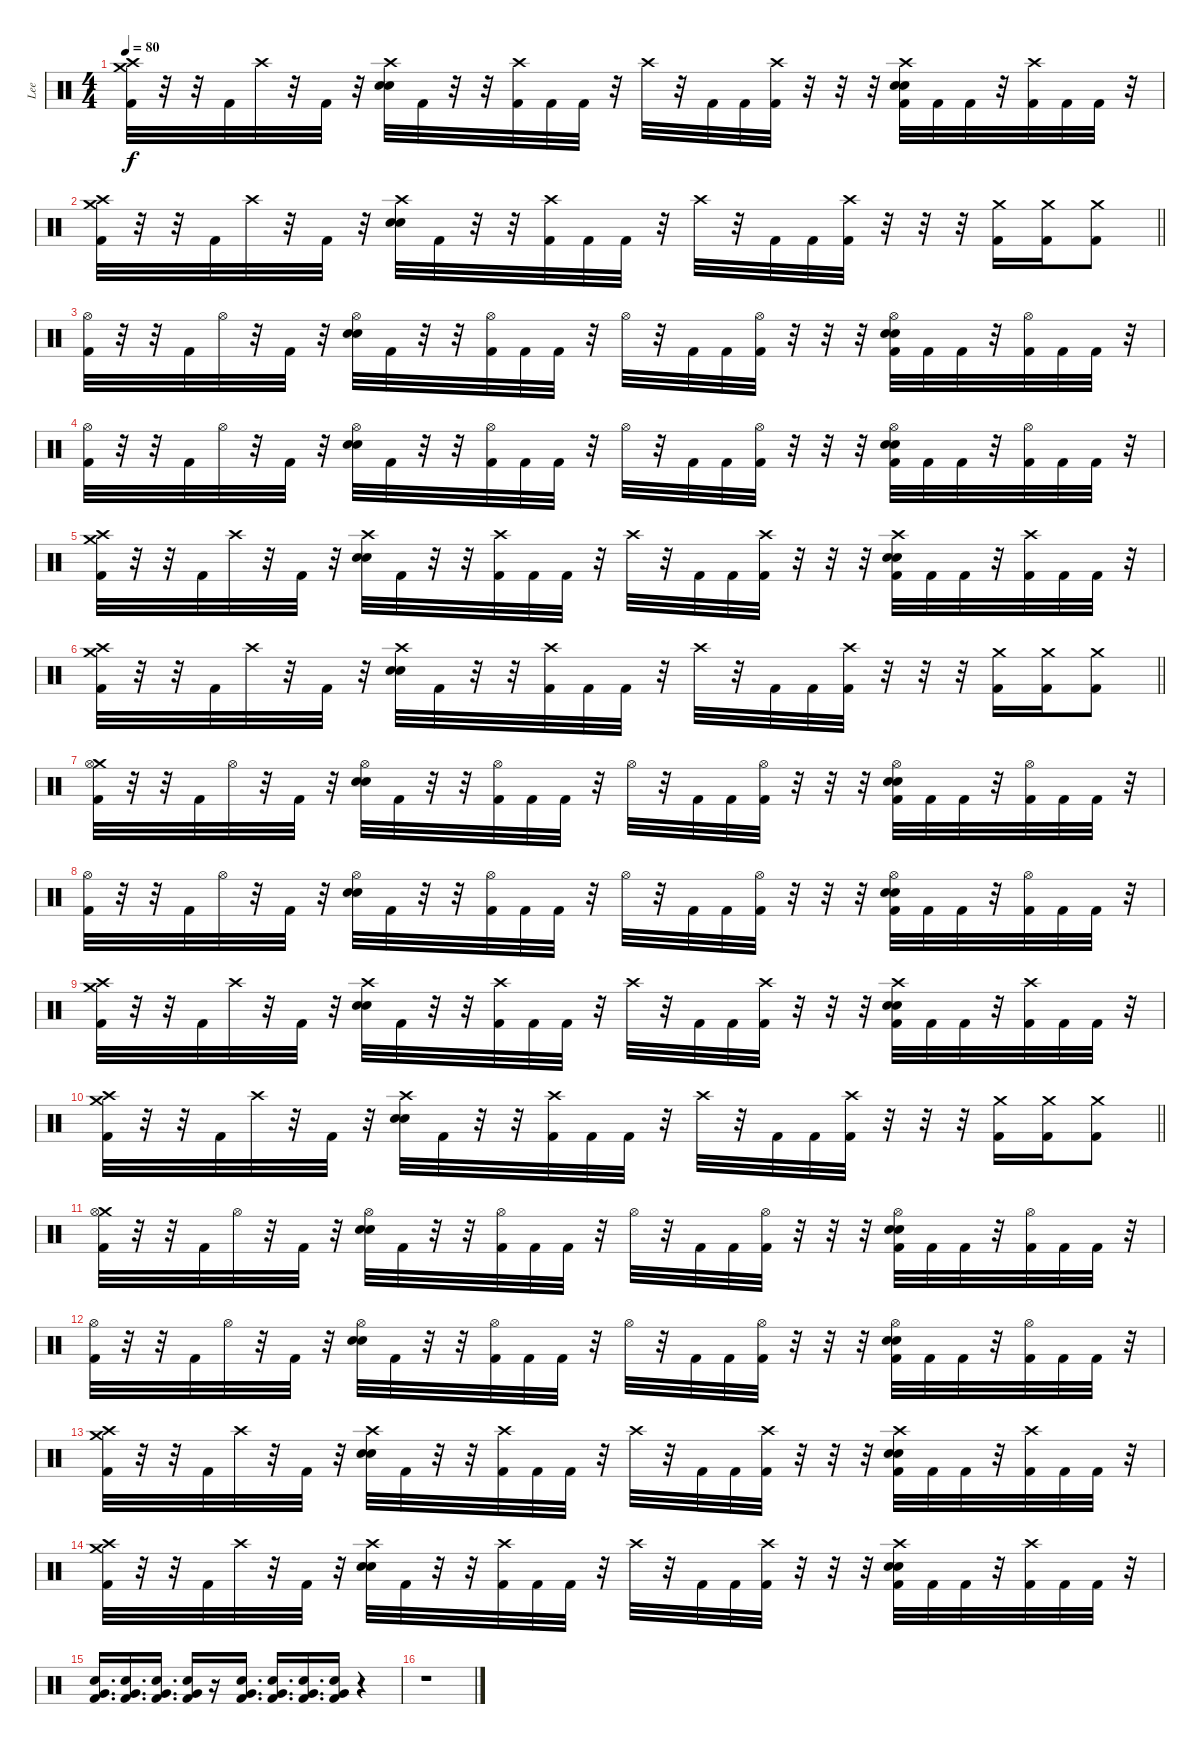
\track ("Lee" "Lee") {instrument percussion}
\staff {score}
\articulation defaults
\ts (4 4)
\tempo 80
\clef neutral
\ks c
("Crash medium (hit)" "Crash high (hit)" "Kick (hit) 2").32{dy f} r.32 r.32 "Kick (hit) 2".32 "Crash high (hit)".32 r.32 "Kick (hit) 2".32 r.32 ("Crash high (hit)" "Electric Snare (hit)" "Snare (hit) 2").32 "Kick (hit) 2".32 r.32 r.32 ("Crash high (hit)" "Kick (hit) 2").32 "Kick (hit) 2".32 "Kick (hit) 2".32 r.32 "Crash high (hit)".32 r.32 "Kick (hit) 2".32 "Kick (hit) 2".32 ("Crash high (hit)" "Kick (hit) 2").32 r.32 r.32 r.32 ("Crash high (hit)" "Electric Snare (hit)" "Snare (hit) 2" "Kick (hit) 2").32 "Kick (hit) 2".32 "Kick (hit) 2".32 r.32 ("Crash high (hit)" "Kick (hit) 2").32 "Kick (hit) 2".32 "Kick (hit) 2".32 r.32 |
\barLineRight lightlight
("Crash medium (hit)" "Crash high (hit)" "Kick (hit) 2").32 r.32 r.32 "Kick (hit) 2".32 "Crash high (hit)".32 r.32 "Kick (hit) 2".32 r.32 ("Crash high (hit)" "Electric Snare (hit)" "Snare (hit) 2").32 "Kick (hit) 2".32 r.32 r.32 ("Crash high (hit)" "Kick (hit) 2").32 "Kick (hit) 2".32 "Kick (hit) 2".32 r.32 "Crash high (hit)".32 r.32 "Kick (hit) 2".32 "Kick (hit) 2".32 ("Crash high (hit)" "Kick (hit) 2").32 r.32 r.32 r.32 ("Crash medium (hit)" "Kick (hit) 2").16 ("Crash medium (hit)" "Kick (hit) 2").16 ("Crash medium (hit)" "Kick (hit) 2").8 |
("Hi-Hat (open)" "Kick (hit) 2").32 r.32 r.32 "Kick (hit) 2".32 "Hi-Hat (open)".32 r.32 "Kick (hit) 2".32 r.32 ("Hi-Hat (open)" "Electric Snare (hit)" "Snare (hit) 2").32 "Kick (hit) 2".32 r.32 r.32 ("Hi-Hat (open)" "Kick (hit) 2").32 "Kick (hit) 2".32 "Kick (hit) 2".32 r.32 "Hi-Hat (open)".32 r.32 "Kick (hit) 2".32 "Kick (hit) 2".32 ("Hi-Hat (open)" "Kick (hit) 2").32 r.32 r.32 r.32 ("Hi-Hat (open)" "Electric Snare (hit)" "Snare (hit) 2" "Kick (hit) 2").32 "Kick (hit) 2".32 "Kick (hit) 2".32 r.32 ("Hi-Hat (open)" "Kick (hit) 2").32 "Kick (hit) 2".32 "Kick (hit) 2".32 r.32 |
("Hi-Hat (open)" "Kick (hit) 2").32 r.32 r.32 "Kick (hit) 2".32 "Hi-Hat (open)".32 r.32 "Kick (hit) 2".32 r.32 ("Hi-Hat (open)" "Electric Snare (hit)" "Snare (hit) 2").32 "Kick (hit) 2".32 r.32 r.32 ("Hi-Hat (open)" "Kick (hit) 2").32 "Kick (hit) 2".32 "Kick (hit) 2".32 r.32 "Hi-Hat (open)".32 r.32 "Kick (hit) 2".32 "Kick (hit) 2".32 ("Hi-Hat (open)" "Kick (hit) 2").32 r.32 r.32 r.32 ("Hi-Hat (open)" "Electric Snare (hit)" "Snare (hit) 2" "Kick (hit) 2").32 "Kick (hit) 2".32 "Kick (hit) 2".32 r.32 ("Hi-Hat (open)" "Kick (hit) 2").32 "Kick (hit) 2".32 "Kick (hit) 2".32 r.32 |
("Crash medium (hit)" "Crash high (hit)" "Kick (hit) 2").32 r.32 r.32 "Kick (hit) 2".32 "Crash high (hit)".32 r.32 "Kick (hit) 2".32 r.32 ("Crash high (hit)" "Electric Snare (hit)" "Snare (hit) 2").32 "Kick (hit) 2".32 r.32 r.32 ("Crash high (hit)" "Kick (hit) 2").32 "Kick (hit) 2".32 "Kick (hit) 2".32 r.32 "Crash high (hit)".32 r.32 "Kick (hit) 2".32 "Kick (hit) 2".32 ("Crash high (hit)" "Kick (hit) 2").32 r.32 r.32 r.32 ("Crash high (hit)" "Electric Snare (hit)" "Snare (hit) 2" "Kick (hit) 2").32 "Kick (hit) 2".32 "Kick (hit) 2".32 r.32 ("Crash high (hit)" "Kick (hit) 2").32 "Kick (hit) 2".32 "Kick (hit) 2".32 r.32 |
\barLineRight lightlight
("Crash medium (hit)" "Crash high (hit)" "Kick (hit) 2").32 r.32 r.32 "Kick (hit) 2".32 "Crash high (hit)".32 r.32 "Kick (hit) 2".32 r.32 ("Crash high (hit)" "Electric Snare (hit)" "Snare (hit) 2").32 "Kick (hit) 2".32 r.32 r.32 ("Crash high (hit)" "Kick (hit) 2").32 "Kick (hit) 2".32 "Kick (hit) 2".32 r.32 "Crash high (hit)".32 r.32 "Kick (hit) 2".32 "Kick (hit) 2".32 ("Crash high (hit)" "Kick (hit) 2").32 r.32 r.32 r.32 ("Crash medium (hit)" "Kick (hit) 2").16 ("Crash medium (hit)" "Kick (hit) 2").16 ("Crash medium (hit)" "Kick (hit) 2").8 |
("Crash medium (hit)" "Hi-Hat (open)" "Kick (hit) 2").32 r.32 r.32 "Kick (hit) 2".32 "Hi-Hat (open)".32 r.32 "Kick (hit) 2".32 r.32 ("Hi-Hat (open)" "Electric Snare (hit)" "Snare (hit) 2").32 "Kick (hit) 2".32 r.32 r.32 ("Hi-Hat (open)" "Kick (hit) 2").32 "Kick (hit) 2".32 "Kick (hit) 2".32 r.32 "Hi-Hat (open)".32 r.32 "Kick (hit) 2".32 "Kick (hit) 2".32 ("Hi-Hat (open)" "Kick (hit) 2").32 r.32 r.32 r.32 ("Hi-Hat (open)" "Electric Snare (hit)" "Snare (hit) 2" "Kick (hit) 2").32 "Kick (hit) 2".32 "Kick (hit) 2".32 r.32 ("Hi-Hat (open)" "Kick (hit) 2").32 "Kick (hit) 2".32 "Kick (hit) 2".32 r.32 |
("Hi-Hat (open)" "Kick (hit) 2").32 r.32 r.32 "Kick (hit) 2".32 "Hi-Hat (open)".32 r.32 "Kick (hit) 2".32 r.32 ("Hi-Hat (open)" "Electric Snare (hit)" "Snare (hit) 2").32 "Kick (hit) 2".32 r.32 r.32 ("Hi-Hat (open)" "Kick (hit) 2").32 "Kick (hit) 2".32 "Kick (hit) 2".32 r.32 "Hi-Hat (open)".32 r.32 "Kick (hit) 2".32 "Kick (hit) 2".32 ("Hi-Hat (open)" "Kick (hit) 2").32 r.32 r.32 r.32 ("Hi-Hat (open)" "Electric Snare (hit)" "Snare (hit) 2" "Kick (hit) 2").32 "Kick (hit) 2".32 "Kick (hit) 2".32 r.32 ("Hi-Hat (open)" "Kick (hit) 2").32 "Kick (hit) 2".32 "Kick (hit) 2".32 r.32 |
("Crash medium (hit)" "Crash high (hit)" "Kick (hit) 2").32 r.32 r.32 "Kick (hit) 2".32 "Crash high (hit)".32 r.32 "Kick (hit) 2".32 r.32 ("Crash high (hit)" "Electric Snare (hit)" "Snare (hit) 2").32 "Kick (hit) 2".32 r.32 r.32 ("Crash high (hit)" "Kick (hit) 2").32 "Kick (hit) 2".32 "Kick (hit) 2".32 r.32 "Crash high (hit)".32 r.32 "Kick (hit) 2".32 "Kick (hit) 2".32 ("Crash high (hit)" "Kick (hit) 2").32 r.32 r.32 r.32 ("Crash high (hit)" "Electric Snare (hit)" "Snare (hit) 2" "Kick (hit) 2").32 "Kick (hit) 2".32 "Kick (hit) 2".32 r.32 ("Crash high (hit)" "Kick (hit) 2").32 "Kick (hit) 2".32 "Kick (hit) 2".32 r.32 |
\barLineRight lightlight
("Crash medium (hit)" "Crash high (hit)" "Kick (hit) 2").32 r.32 r.32 "Kick (hit) 2".32 "Crash high (hit)".32 r.32 "Kick (hit) 2".32 r.32 ("Crash high (hit)" "Electric Snare (hit)" "Snare (hit) 2").32 "Kick (hit) 2".32 r.32 r.32 ("Crash high (hit)" "Kick (hit) 2").32 "Kick (hit) 2".32 "Kick (hit) 2".32 r.32 "Crash high (hit)".32 r.32 "Kick (hit) 2".32 "Kick (hit) 2".32 ("Crash high (hit)" "Kick (hit) 2").32 r.32 r.32 r.32 ("Crash medium (hit)" "Kick (hit) 2").16 ("Crash medium (hit)" "Kick (hit) 2").16 ("Crash medium (hit)" "Kick (hit) 2").8 |
("Crash medium (hit)" "Hi-Hat (open)" "Kick (hit) 2").32 r.32 r.32 "Kick (hit) 2".32 "Hi-Hat (open)".32 r.32 "Kick (hit) 2".32 r.32 ("Hi-Hat (open)" "Electric Snare (hit)" "Snare (hit) 2").32 "Kick (hit) 2".32 r.32 r.32 ("Hi-Hat (open)" "Kick (hit) 2").32 "Kick (hit) 2".32 "Kick (hit) 2".32 r.32 "Hi-Hat (open)".32 r.32 "Kick (hit) 2".32 "Kick (hit) 2".32 ("Hi-Hat (open)" "Kick (hit) 2").32 r.32 r.32 r.32 ("Hi-Hat (open)" "Electric Snare (hit)" "Snare (hit) 2" "Kick (hit) 2").32 "Kick (hit) 2".32 "Kick (hit) 2".32 r.32 ("Hi-Hat (open)" "Kick (hit) 2").32 "Kick (hit) 2".32 "Kick (hit) 2".32 r.32 |
("Hi-Hat (open)" "Kick (hit) 2").32 r.32 r.32 "Kick (hit) 2".32 "Hi-Hat (open)".32 r.32 "Kick (hit) 2".32 r.32 ("Hi-Hat (open)" "Electric Snare (hit)" "Snare (hit) 2").32 "Kick (hit) 2".32 r.32 r.32 ("Hi-Hat (open)" "Kick (hit) 2").32 "Kick (hit) 2".32 "Kick (hit) 2".32 r.32 "Hi-Hat (open)".32 r.32 "Kick (hit) 2".32 "Kick (hit) 2".32 ("Hi-Hat (open)" "Kick (hit) 2").32 r.32 r.32 r.32 ("Hi-Hat (open)" "Electric Snare (hit)" "Snare (hit) 2" "Kick (hit) 2").32 "Kick (hit) 2".32 "Kick (hit) 2".32 r.32 ("Hi-Hat (open)" "Kick (hit) 2").32 "Kick (hit) 2".32 "Kick (hit) 2".32 r.32 |
("Crash medium (hit)" "Crash high (hit)" "Kick (hit) 2").32 r.32 r.32 "Kick (hit) 2".32 "Crash high (hit)".32 r.32 "Kick (hit) 2".32 r.32 ("Crash high (hit)" "Electric Snare (hit)" "Snare (hit) 2").32 "Kick (hit) 2".32 r.32 r.32 ("Crash high (hit)" "Kick (hit) 2").32 "Kick (hit) 2".32 "Kick (hit) 2".32 r.32 "Crash high (hit)".32 r.32 "Kick (hit) 2".32 "Kick (hit) 2".32 ("Crash high (hit)" "Kick (hit) 2").32 r.32 r.32 r.32 ("Crash high (hit)" "Electric Snare (hit)" "Snare (hit) 2" "Kick (hit) 2").32 "Kick (hit) 2".32 "Kick (hit) 2".32 r.32 ("Crash high (hit)" "Kick (hit) 2").32 "Kick (hit) 2".32 "Kick (hit) 2".32 r.32 |
("Crash medium (hit)" "Crash high (hit)" "Kick (hit) 2").32 r.32 r.32 "Kick (hit) 2".32 "Crash high (hit)".32 r.32 "Kick (hit) 2".32 r.32 ("Crash high (hit)" "Electric Snare (hit)" "Snare (hit) 2").32 "Kick (hit) 2".32 r.32 r.32 ("Crash high (hit)" "Kick (hit) 2").32 "Kick (hit) 2".32 "Kick (hit) 2".32 r.32 "Crash high (hit)".32 r.32 "Kick (hit) 2".32 "Kick (hit) 2".32 ("Crash high (hit)" "Kick (hit) 2").32 r.32 r.32 r.32 ("Crash high (hit)" "Electric Snare (hit)" "Snare (hit) 2" "Kick (hit) 2").32 "Kick (hit) 2".32 "Kick (hit) 2".32 r.32 ("Crash high (hit)" "Kick (hit) 2").32 "Kick (hit) 2".32 "Kick (hit) 2".32 r.32 |
("Electric Snare (hit)" "Very Low Tom (hit)" "Kick (hit) 2").16{d} ("Electric Snare (hit)" "Very Low Tom (hit)" "Kick (hit) 2").16{d} ("Electric Snare (hit)" "Very Low Tom (hit)" "Kick (hit) 2").16{d} ("Electric Snare (hit)" "Very Low Tom (hit)" "Kick (hit) 2").16 r.16 ("Electric Snare (hit)" "Very Low Tom (hit)" "Kick (hit) 2").16{d} ("Electric Snare (hit)" "Very Low Tom (hit)" "Kick (hit) 2").16{d} ("Electric Snare (hit)" "Very Low Tom (hit)" "Kick (hit) 2").16{d} ("Electric Snare (hit)" "Very Low Tom (hit)" "Kick (hit) 2").16 r.4 |
r.1
